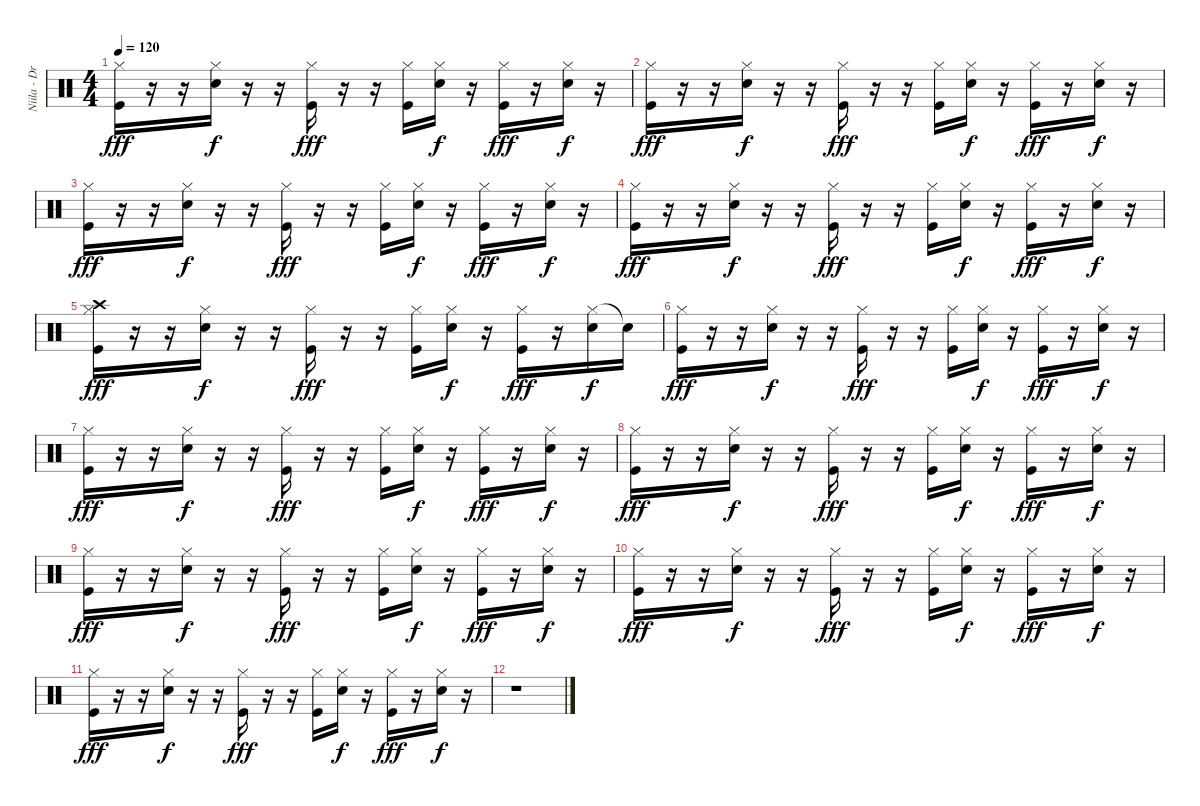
\track ("Niila - Drums" "Niila - Dr") {instrument percussion}
\staff {score}
\articulation defaults
\ts (4 4)
\tempo 120
\clef neutral
\ks c
("Hi-Hat (closed)" "Kick (hit)").16{dy fff} r.16 r.16 ("Hi-Hat (closed)" "Snare (hit) 2").16{dy f} r.16 r.16 ("Hi-Hat (closed)" "Kick (hit)").16{dy fff} r.16 r.16 ("Hi-Hat (closed)" "Kick (hit)").16 ("Hi-Hat (closed)" "Snare (hit) 2").16{dy f} r.16 ("Hi-Hat (closed)" "Kick (hit)").16{dy fff} r.16 ("Hi-Hat (closed)" "Snare (hit) 2").16{dy f} r.16 |
("Hi-Hat (closed)" "Kick (hit)").16{dy fff} r.16 r.16 ("Hi-Hat (closed)" "Snare (hit) 2").16{dy f} r.16 r.16 ("Hi-Hat (closed)" "Kick (hit)").16{dy fff} r.16 r.16 ("Hi-Hat (closed)" "Kick (hit)").16 ("Hi-Hat (closed)" "Snare (hit) 2").16{dy f} r.16 ("Hi-Hat (closed)" "Kick (hit)").16{dy fff} r.16 ("Hi-Hat (closed)" "Snare (hit) 2").16{dy f} r.16 |
("Hi-Hat (closed)" "Kick (hit)").16{dy fff} r.16 r.16 ("Hi-Hat (closed)" "Snare (hit) 2").16{dy f} r.16 r.16 ("Hi-Hat (closed)" "Kick (hit)").16{dy fff} r.16 r.16 ("Hi-Hat (closed)" "Kick (hit)").16 ("Hi-Hat (closed)" "Snare (hit) 2").16{dy f} r.16 ("Hi-Hat (closed)" "Kick (hit)").16{dy fff} r.16 ("Hi-Hat (closed)" "Snare (hit) 2").16{dy f} r.16 |
("Hi-Hat (closed)" "Kick (hit)").16{dy fff} r.16 r.16 ("Hi-Hat (closed)" "Snare (hit) 2").16{dy f} r.16 r.16 ("Hi-Hat (closed)" "Kick (hit)").16{dy fff} r.16 r.16 ("Hi-Hat (closed)" "Kick (hit)").16 ("Hi-Hat (closed)" "Snare (hit) 2").16{dy f} r.16 ("Hi-Hat (closed)" "Kick (hit)").16{dy fff} r.16 ("Hi-Hat (closed)" "Snare (hit) 2").16{dy f} r.16 |
("Crash high (hit)" "Hi-Hat (closed)" "Kick (hit)").16{dy fff volume 12} r.16 r.16 ("Hi-Hat (closed)" "Snare (hit) 2").16{dy f} r.16 r.16 ("Hi-Hat (closed)" "Kick (hit)").16{dy fff} r.16 r.16{volume 11} ("Hi-Hat (closed)" "Kick (hit)").16 ("Hi-Hat (closed)" "Snare (hit) 2").16{dy f} r.16 ("Hi-Hat (closed)" "Kick (hit)").16{dy fff} r.16 ("Hi-Hat (closed)" "Snare (hit) 2").16{dy f} "Snare (hit)"{t}.16 |
("Hi-Hat (closed)" "Kick (hit)").16{dy fff volume 10} r.16 r.16 ("Hi-Hat (closed)" "Snare (hit) 2").16{dy f} r.16 r.16 ("Hi-Hat (closed)" "Kick (hit)").16{dy fff} r.16 r.16{volume 9} ("Hi-Hat (closed)" "Kick (hit)").16 ("Hi-Hat (closed)" "Snare (hit) 2").16{dy f} r.16 ("Hi-Hat (closed)" "Kick (hit)").16{dy fff} r.16 ("Hi-Hat (closed)" "Snare (hit) 2").16{dy f} r.16 |
("Hi-Hat (closed)" "Kick (hit)").16{dy fff volume 8} r.16 r.16 ("Hi-Hat (closed)" "Snare (hit) 2").16{dy f} r.16 r.16 ("Hi-Hat (closed)" "Kick (hit)").16{dy fff} r.16 r.16{volume 7} ("Hi-Hat (closed)" "Kick (hit)").16 ("Hi-Hat (closed)" "Snare (hit) 2").16{dy f} r.16 ("Hi-Hat (closed)" "Kick (hit)").16{dy fff} r.16 ("Hi-Hat (closed)" "Snare (hit) 2").16{dy f} r.16 |
("Hi-Hat (closed)" "Kick (hit)").16{dy fff volume 6} r.16 r.16 ("Hi-Hat (closed)" "Snare (hit) 2").16{dy f} r.16 r.16 ("Hi-Hat (closed)" "Kick (hit)").16{dy fff} r.16 r.16{volume 5} ("Hi-Hat (closed)" "Kick (hit)").16 ("Hi-Hat (closed)" "Snare (hit) 2").16{dy f} r.16 ("Hi-Hat (closed)" "Kick (hit)").16{dy fff} r.16 ("Hi-Hat (closed)" "Snare (hit) 2").16{dy f} r.16 |
("Hi-Hat (closed)" "Kick (hit)").16{dy fff volume 4} r.16 r.16 ("Hi-Hat (closed)" "Snare (hit) 2").16{dy f} r.16 r.16 ("Hi-Hat (closed)" "Kick (hit)").16{dy fff} r.16 r.16{volume 3} ("Hi-Hat (closed)" "Kick (hit)").16 ("Hi-Hat (closed)" "Snare (hit) 2").16{dy f} r.16 ("Hi-Hat (closed)" "Kick (hit)").16{dy fff} r.16 ("Hi-Hat (closed)" "Snare (hit) 2").16{dy f} r.16 |
("Hi-Hat (closed)" "Kick (hit)").16{dy fff volume 2} r.16 r.16 ("Hi-Hat (closed)" "Snare (hit) 2").16{dy f} r.16 r.16 ("Hi-Hat (closed)" "Kick (hit)").16{dy fff} r.16 r.16{volume 1} ("Hi-Hat (closed)" "Kick (hit)").16 ("Hi-Hat (closed)" "Snare (hit) 2").16{dy f} r.16 ("Hi-Hat (closed)" "Kick (hit)").16{dy fff} r.16 ("Hi-Hat (closed)" "Snare (hit) 2").16{dy f} r.16 |
("Hi-Hat (closed)" "Kick (hit)").16{dy fff volume 0} r.16 r.16 ("Hi-Hat (closed)" "Snare (hit) 2").16{dy f} r.16 r.16 ("Hi-Hat (closed)" "Kick (hit)").16{dy fff} r.16 r.16{volume 0} ("Hi-Hat (closed)" "Kick (hit)").16 ("Hi-Hat (closed)" "Snare (hit) 2").16{dy f} r.16 ("Hi-Hat (closed)" "Kick (hit)").16{dy fff} r.16 ("Hi-Hat (closed)" "Snare (hit) 2").16{dy f} r.16 |
r.1
